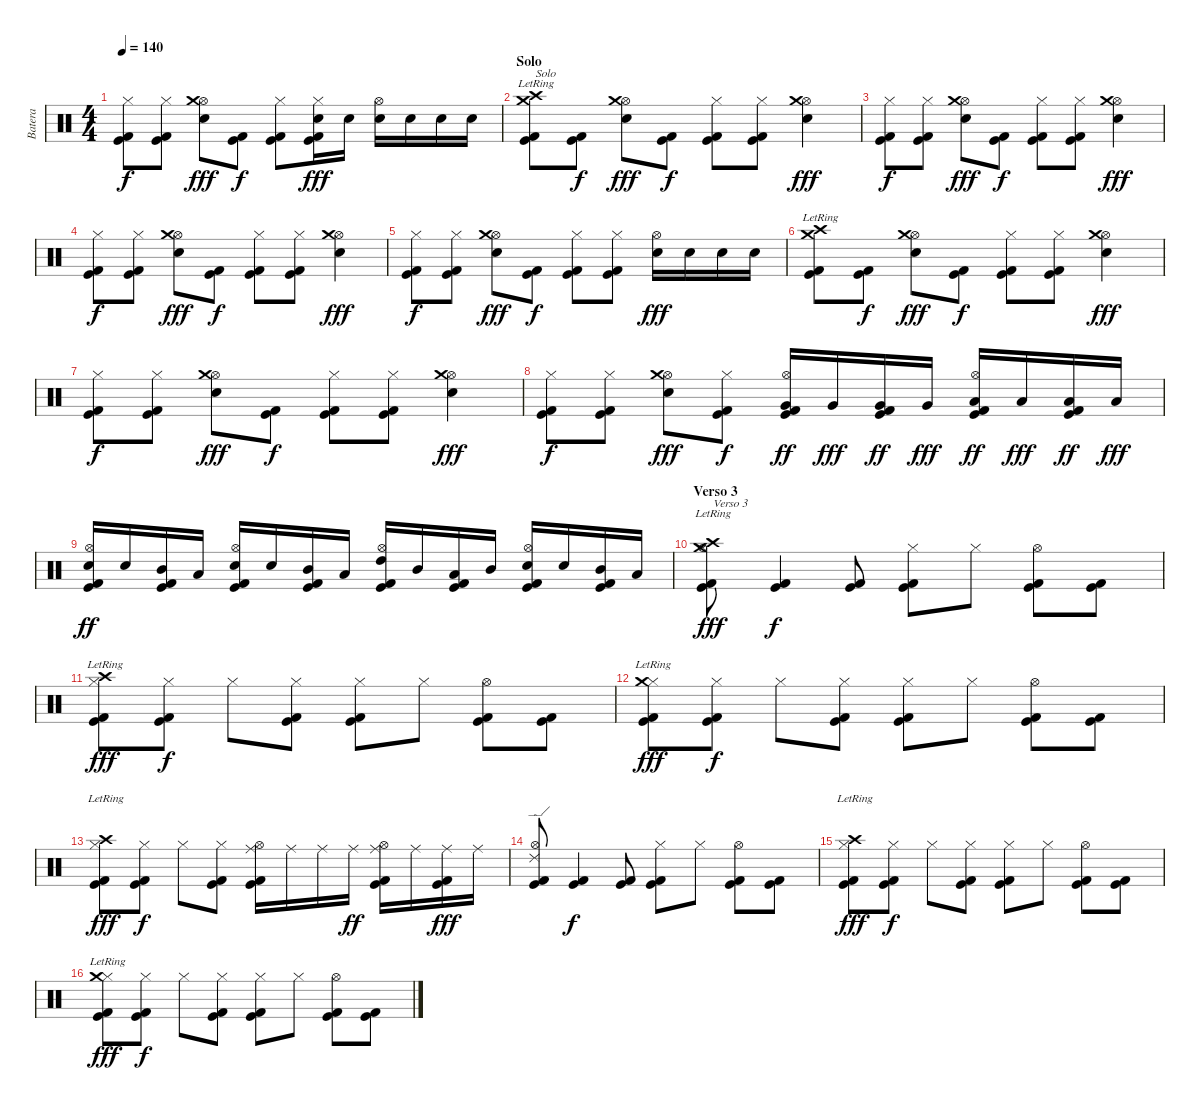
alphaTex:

\track ("Batera" "Batera") {instrument percussion}
\staff {score}
\articulation defaults
\ts (4 4)
\tempo 140
\clef neutral
\ks c
("Hi-Hat (closed)" "Kick (hit)" "Kick (hit) 2").8{dy f} ("Hi-Hat (closed)" "Kick (hit)" "Kick (hit) 2").8 ("Hi-Hat (open)" "Electric Snare (hit)" "Crash medium (hit)").8{dy fff} ("Kick (hit)" "Kick (hit) 2").8{dy f} ("Hi-Hat (closed)" "Kick (hit)" "Kick (hit) 2").8 ("Hi-Hat (closed)" "Kick (hit)" "Metronome (bell)" "Kick (hit) 2").16{dy fff} "Metronome (bell)".16 ("Hi-Hat (open)" "Metronome (bell)").16 "Metronome (bell)".16 "Metronome (bell)".16 "Metronome (bell)".16 |
\section ("" "Solo")
("Kick (hit)" "Crash medium (hit)"{lr} "Crash high (hit)"{lr} "Kick (hit) 2").8{txt "Solo"} ("Kick (hit)" "Kick (hit) 2").8{dy f} ("Hi-Hat (open)" "Electric Snare (hit)" "Crash medium (hit)").8{dy fff} ("Kick (hit)" "Kick (hit) 2").8{dy f} ("Hi-Hat (closed)" "Kick (hit)" "Kick (hit) 2").8 ("Hi-Hat (closed)" "Kick (hit)" "Kick (hit) 2").8 ("Hi-Hat (open)" "Electric Snare (hit)" "Crash medium (hit)").4{dy fff} |
("Hi-Hat (closed)" "Kick (hit)" "Kick (hit) 2").8{dy f} ("Hi-Hat (closed)" "Kick (hit)" "Kick (hit) 2").8 ("Hi-Hat (open)" "Electric Snare (hit)" "Crash medium (hit)").8{dy fff} ("Kick (hit)" "Kick (hit) 2").8{dy f} ("Hi-Hat (closed)" "Kick (hit)" "Kick (hit) 2").8 ("Hi-Hat (closed)" "Kick (hit)" "Kick (hit) 2").8 ("Hi-Hat (open)" "Electric Snare (hit)" "Crash medium (hit)").4{dy fff} |
("Hi-Hat (closed)" "Kick (hit)" "Kick (hit) 2").8{dy f} ("Hi-Hat (closed)" "Kick (hit)" "Kick (hit) 2").8 ("Hi-Hat (open)" "Electric Snare (hit)" "Crash medium (hit)").8{dy fff} ("Kick (hit)" "Kick (hit) 2").8{dy f} ("Hi-Hat (closed)" "Kick (hit)" "Kick (hit) 2").8 ("Hi-Hat (closed)" "Kick (hit)" "Kick (hit) 2").8 ("Hi-Hat (open)" "Electric Snare (hit)" "Crash medium (hit)").4{dy fff} |
("Hi-Hat (closed)" "Kick (hit)" "Kick (hit) 2").8{dy f} ("Hi-Hat (closed)" "Kick (hit)" "Kick (hit) 2").8 ("Hi-Hat (open)" "Electric Snare (hit)" "Crash medium (hit)").8{dy fff} ("Kick (hit)" "Kick (hit) 2").8{dy f} ("Hi-Hat (closed)" "Kick (hit)" "Kick (hit) 2").8 ("Hi-Hat (closed)" "Kick (hit)" "Kick (hit) 2").8 ("Hi-Hat (open)" "Metronome (bell)").16{dy fff} "Metronome (bell)".16 "Metronome (bell)".16 "Metronome (bell)".16 |
("Kick (hit)" "Crash medium (hit)"{lr} "Crash high (hit)"{lr} "Kick (hit) 2").8 ("Kick (hit)" "Kick (hit) 2").8{dy f} ("Hi-Hat (open)" "Electric Snare (hit)" "Crash medium (hit)").8{dy fff} ("Kick (hit)" "Kick (hit) 2").8{dy f} ("Hi-Hat (closed)" "Kick (hit)" "Kick (hit) 2").8 ("Hi-Hat (closed)" "Kick (hit)" "Kick (hit) 2").8 ("Hi-Hat (open)" "Electric Snare (hit)" "Crash medium (hit)").4{dy fff} |
("Hi-Hat (closed)" "Kick (hit)" "Kick (hit) 2").8{dy f} ("Hi-Hat (closed)" "Kick (hit)" "Kick (hit) 2").8 ("Hi-Hat (open)" "Electric Snare (hit)" "Crash medium (hit)").8{dy fff} ("Kick (hit)" "Kick (hit) 2").8{dy f} ("Hi-Hat (closed)" "Kick (hit)" "Kick (hit) 2").8 ("Hi-Hat (closed)" "Kick (hit)" "Kick (hit) 2").8 ("Hi-Hat (open)" "Electric Snare (hit)" "Crash medium (hit)").4{dy fff} |
("Hi-Hat (closed)" "Kick (hit)" "Kick (hit) 2").8{dy f} ("Hi-Hat (closed)" "Kick (hit)" "Kick (hit) 2").8 ("Hi-Hat (open)" "Electric Snare (hit)" "Crash medium (hit)").8{dy fff} ("Hi-Hat (closed)" "Kick (hit)" "Kick (hit) 2").8{dy f} ("Hi-Hat (open)" "Kick (hit)" "Very Low Tom (hit)" "Kick (hit) 2").16{dy ff} "Very Low Tom (hit)".16{dy fff} ("Kick (hit)" "Very Low Tom (hit)" "Kick (hit) 2").16{dy ff} "Very Low Tom (hit)".16{dy fff} ("Hi-Hat (open)" "Kick (hit)" "Low Floor Tom (hit)" "Kick (hit) 2").16{dy ff} "Low Floor Tom (hit)".16{dy fff} ("Kick (hit)" "Low Floor Tom (hit)" "Kick (hit) 2").16{dy ff} "Low Floor Tom (hit)".16{dy fff} |
("Hi-Hat (open)" "Kick (hit)" "Metronome (bell)" "Kick (hit) 2").16{dy ff} "Metronome (bell)".16 ("Kick (hit)" "Mid Tom (hit)" "Kick (hit) 2").16 "Low Tom (hit)".16 ("Hi-Hat (open)" "Kick (hit)" "Metronome (bell)" "Kick (hit) 2").16 "Metronome (bell)".16 ("Kick (hit)" "Mid Tom (hit)" "Kick (hit) 2").16 "Low Tom (hit)".16 ("Hi-Hat (open)" "Kick (hit)" "High Tom (hit)" "Kick (hit) 2").16 "Mid Tom (hit)".16 ("Kick (hit)" "Low Tom (hit)" "Kick (hit) 2").16 "Mid Tom (hit)".16 ("Hi-Hat (open)" "Kick (hit)" "Metronome (bell)" "Kick (hit) 2").16 "Metronome (bell)".16 ("Kick (hit)" "Mid Tom (hit)" "Kick (hit) 2").16 "Low Tom (hit)".16 |
\section ("" "Verso 3")
("Hi-Hat (open)" "Kick (hit)" "Crash medium (hit)"{lr} "Crash high (hit)"{lr} "Kick (hit) 2").8{txt "Verso 3" dy fff} ("Kick (hit)" "Kick (hit) 2").4{dy f} ("Kick (hit)" "Kick (hit) 2").8 ("Hi-Hat (closed)" "Kick (hit)" "Kick (hit) 2").8 "Hi-Hat (closed)".8 ("Hi-Hat (open)" "Kick (hit)" "Kick (hit) 2").8 ("Kick (hit)" "Kick (hit) 2").8 |
("Hi-Hat (closed)" "Kick (hit)" "Crash high (hit)"{lr} "Kick (hit) 2").8{dy fff} ("Hi-Hat (closed)" "Kick (hit)" "Kick (hit) 2").8{dy f} "Hi-Hat (closed)".8 ("Hi-Hat (closed)" "Kick (hit)" "Kick (hit) 2").8 ("Hi-Hat (closed)" "Kick (hit)" "Kick (hit) 2").8 "Hi-Hat (closed)".8 ("Hi-Hat (open)" "Kick (hit)" "Kick (hit) 2").8 ("Kick (hit)" "Kick (hit) 2").8 |
("Hi-Hat (closed)" "Kick (hit)" "Crash medium (hit)"{lr} "Kick (hit) 2").8{dy fff} ("Hi-Hat (closed)" "Kick (hit)" "Kick (hit) 2").8{dy f} "Hi-Hat (closed)".8 ("Hi-Hat (closed)" "Kick (hit)" "Kick (hit) 2").8 ("Hi-Hat (closed)" "Kick (hit)" "Kick (hit) 2").8 "Hi-Hat (closed)".8 ("Hi-Hat (open)" "Kick (hit)" "Kick (hit) 2").8 ("Kick (hit)" "Kick (hit) 2").8 |
("Hi-Hat (closed)" "Kick (hit)" "Crash high (hit)"{lr} "Kick (hit) 2").8{dy fff} ("Hi-Hat (closed)" "Kick (hit)" "Kick (hit) 2").8{dy f} "Hi-Hat (closed)".8 ("Hi-Hat (closed)" "Kick (hit)" "Kick (hit) 2").8 ("Hi-Hat (open)" "Kick (hit)" "Ride (middle)" "Kick (hit) 2").16 "Ride (middle)".16 "Ride (middle)".16 "Ride (middle)".16{dy ff} ("Hi-Hat (open)" "Kick (hit)" "Ride (middle)" "Kick (hit) 2").16 "Ride (middle)".16 ("Kick (hit)" "Ride (middle)" "Kick (hit) 2").16{dy fff} "Ride (middle)".16 |
("Hi-Hat (open)" "Kick (hit)" "Ride (edge) 2" "Kick (hit) 2").8 ("Kick (hit)" "Kick (hit) 2").4{dy f} ("Kick (hit)" "Kick (hit) 2").8 ("Hi-Hat (closed)" "Kick (hit)" "Kick (hit) 2").8 "Hi-Hat (closed)".8 ("Hi-Hat (open)" "Kick (hit)" "Kick (hit) 2").8 ("Kick (hit)" "Kick (hit) 2").8 |
("Hi-Hat (closed)" "Kick (hit)" "Crash high (hit)"{lr} "Kick (hit) 2").8{dy fff} ("Hi-Hat (closed)" "Kick (hit)" "Kick (hit) 2").8{dy f} "Hi-Hat (closed)".8 ("Hi-Hat (closed)" "Kick (hit)" "Kick (hit) 2").8 ("Hi-Hat (closed)" "Kick (hit)" "Kick (hit) 2").8 "Hi-Hat (closed)".8 ("Hi-Hat (open)" "Kick (hit)" "Kick (hit) 2").8 ("Kick (hit)" "Kick (hit) 2").8 |
("Hi-Hat (closed)" "Kick (hit)" "Crash medium (hit)"{lr} "Kick (hit) 2").8{dy fff} ("Hi-Hat (closed)" "Kick (hit)" "Kick (hit) 2").8{dy f} "Hi-Hat (closed)".8 ("Hi-Hat (closed)" "Kick (hit)" "Kick (hit) 2").8 ("Hi-Hat (closed)" "Kick (hit)" "Kick (hit) 2").8 "Hi-Hat (closed)".8 ("Hi-Hat (open)" "Kick (hit)" "Kick (hit) 2").8 ("Kick (hit)" "Kick (hit) 2").8
